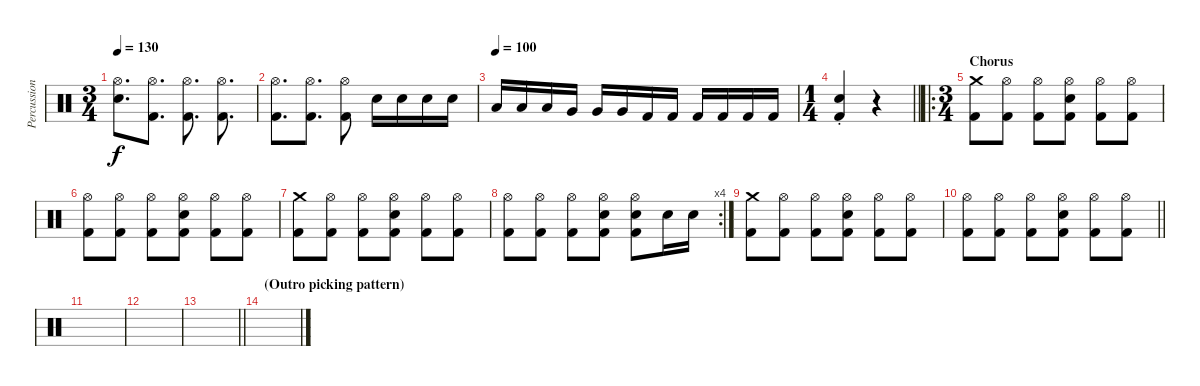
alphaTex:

\track ("Percussion" "Percussion") {instrument percussion}
\staff {score}
\articulation defaults
\ts (3 4)
\tempo 130
\clef neutral
\ks c
("Hi-Hat (open)" "Snare (hit) 2").8{d dy f} ("Hi-Hat (open)" "Kick (hit) 2").8{d} ("Hi-Hat (open)" "Kick (hit) 2").8{d} ("Hi-Hat (open)" "Kick (hit) 2").8{d} |
("Hi-Hat (open)" "Kick (hit) 2").8{d} ("Hi-Hat (open)" "Kick (hit) 2").8{d} ("Hi-Hat (open)" "Kick (hit) 2").8 "Snare (hit) 2".16 "Snare (hit) 2".16 "Snare (hit) 2".16 "Snare (hit) 2".16 |
\tempo (100)
"Low Tom (hit)".16 "Low Tom (hit)".16 "Low Tom (hit)".16 "Very Low Tom (hit)".16 "Very Low Tom (hit)".16 "Very Low Tom (hit)".16 "Kick (hit) 2".16 "Kick (hit) 2".16 "Kick (hit) 2".16 "Kick (hit) 2".16 "Kick (hit) 2".16 "Kick (hit) 2".16 |
\ts (1 4)
\barLineRight lightlight
("Snare (hit) 2" "Kick (hit) 2"{st}).4 r.4 |
\ro
\ts (3 4)
\section ("" "Chorus")
("Crash medium (hit)" "Kick (hit) 2").8 ("Hi-Hat (open)" "Kick (hit) 2").8 ("Hi-Hat (open)" "Kick (hit) 2").8 ("Hi-Hat (open)" "Snare (hit) 2" "Kick (hit) 2").8 ("Hi-Hat (open)" "Kick (hit) 2").8 ("Hi-Hat (open)" "Kick (hit) 2").8 |
("Hi-Hat (open)" "Kick (hit) 2").8 ("Hi-Hat (open)" "Kick (hit) 2").8 ("Hi-Hat (open)" "Kick (hit) 2").8 ("Hi-Hat (open)" "Snare (hit) 2" "Kick (hit) 2").8 ("Hi-Hat (open)" "Kick (hit) 2").8 ("Hi-Hat (open)" "Kick (hit) 2").8 |
("Crash medium (hit)" "Kick (hit) 2").8 ("Hi-Hat (open)" "Kick (hit) 2").8 ("Hi-Hat (open)" "Kick (hit) 2").8 ("Hi-Hat (open)" "Snare (hit) 2" "Kick (hit) 2").8 ("Hi-Hat (open)" "Kick (hit) 2").8 ("Hi-Hat (open)" "Kick (hit) 2").8 |
\rc 4
("Hi-Hat (open)" "Kick (hit) 2").8 ("Hi-Hat (open)" "Kick (hit) 2").8 ("Hi-Hat (open)" "Kick (hit) 2").8 ("Hi-Hat (open)" "Snare (hit) 2" "Kick (hit) 2").8 ("Hi-Hat (open)" "Snare (hit) 2" "Kick (hit) 2").8 "Snare (hit) 2".16 "Snare (hit) 2".16 |
("Crash medium (hit)" "Kick (hit) 2").8 ("Hi-Hat (open)" "Kick (hit) 2").8 ("Hi-Hat (open)" "Kick (hit) 2").8 ("Hi-Hat (open)" "Snare (hit) 2" "Kick (hit) 2").8 ("Hi-Hat (open)" "Kick (hit) 2").8 ("Hi-Hat (open)" "Kick (hit) 2").8 |
\barLineRight lightlight
("Hi-Hat (open)" "Kick (hit) 2").8 ("Hi-Hat (open)" "Kick (hit) 2").8 ("Hi-Hat (open)" "Kick (hit) 2").8 ("Hi-Hat (open)" "Snare (hit) 2" "Kick (hit) 2").8 ("Hi-Hat (open)" "Kick (hit) 2").8 ("Hi-Hat (open)" "Kick (hit) 2").8 |
|
|
\barLineRight lightlight
|
\section ("" "(Outro picking pattern)")
